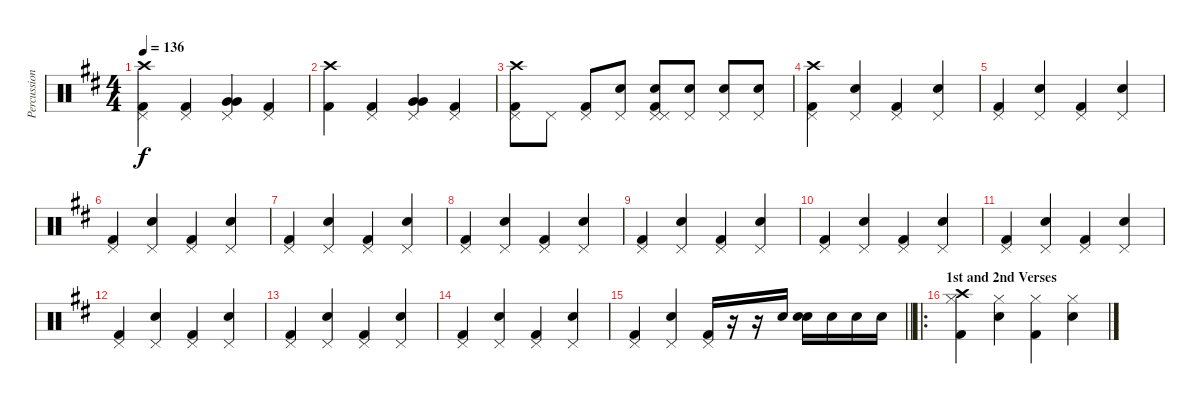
\track ("Percussions" "Percussion") {instrument percussion}
\staff {score}
\articulation defaults
\ts (4 4)
\tempo 136
\clef neutral
\ks d
("Kick (hit) 2" "Pedal Hi-Hat (hit)" "Crash high (hit)").4{dy f} ("Kick (hit) 2" "Pedal Hi-Hat (hit)").4 ("Pedal Hi-Hat (hit)" "Very Low Tom (hit)" "Very Low Tom (hit)").4 ("Kick (hit) 2" "Pedal Hi-Hat (hit)").4 |
("Kick (hit) 2" "Crash high (hit)").4 ("Kick (hit) 2" "Pedal Hi-Hat (hit)").4 ("Pedal Hi-Hat (hit)" "Very Low Tom (hit)" "Very Low Tom (hit)").4 ("Kick (hit) 2" "Pedal Hi-Hat (hit)").4 |
("Pedal Hi-Hat (hit)" "Kick (hit) 2" "Crash high (hit)").8 "Pedal Hi-Hat (hit)".8 ("Pedal Hi-Hat (hit)" "Kick (hit) 2").8 ("Pedal Hi-Hat (hit)" "Snare (hit) 2").8 ("Pedal Hi-Hat (hit)" "Snare (hit) 2" "Kick (hit) 2" "Pedal Hi-Hat (hit)").8 ("Pedal Hi-Hat (hit)" "Snare (hit) 2").8 ("Pedal Hi-Hat (hit)" "Snare (hit) 2").8 ("Pedal Hi-Hat (hit)" "Snare (hit) 2").8 |
("Pedal Hi-Hat (hit)" "Kick (hit) 2" "Crash high (hit)").4 ("Pedal Hi-Hat (hit)" "Snare (hit) 2").4 ("Pedal Hi-Hat (hit)" "Kick (hit) 2").4 ("Pedal Hi-Hat (hit)" "Snare (hit) 2").4 |
("Pedal Hi-Hat (hit)" "Kick (hit) 2").4 ("Pedal Hi-Hat (hit)" "Snare (hit) 2").4 ("Pedal Hi-Hat (hit)" "Kick (hit) 2").4 ("Pedal Hi-Hat (hit)" "Snare (hit) 2").4 |
("Pedal Hi-Hat (hit)" "Kick (hit) 2").4 ("Pedal Hi-Hat (hit)" "Snare (hit) 2").4 ("Pedal Hi-Hat (hit)" "Kick (hit) 2").4 ("Pedal Hi-Hat (hit)" "Snare (hit) 2").4 |
("Pedal Hi-Hat (hit)" "Kick (hit) 2").4 ("Pedal Hi-Hat (hit)" "Snare (hit) 2").4 ("Pedal Hi-Hat (hit)" "Kick (hit) 2").4 ("Pedal Hi-Hat (hit)" "Snare (hit) 2").4 |
("Pedal Hi-Hat (hit)" "Kick (hit) 2").4 ("Pedal Hi-Hat (hit)" "Snare (hit) 2").4 ("Pedal Hi-Hat (hit)" "Kick (hit) 2").4 ("Pedal Hi-Hat (hit)" "Snare (hit) 2").4 |
("Pedal Hi-Hat (hit)" "Kick (hit) 2").4 ("Pedal Hi-Hat (hit)" "Snare (hit) 2").4 ("Pedal Hi-Hat (hit)" "Kick (hit) 2").4 ("Pedal Hi-Hat (hit)" "Snare (hit) 2").4 |
("Pedal Hi-Hat (hit)" "Kick (hit) 2").4 ("Pedal Hi-Hat (hit)" "Snare (hit) 2").4 ("Pedal Hi-Hat (hit)" "Kick (hit) 2").4 ("Pedal Hi-Hat (hit)" "Snare (hit) 2").4 |
("Pedal Hi-Hat (hit)" "Kick (hit) 2").4 ("Pedal Hi-Hat (hit)" "Snare (hit) 2").4 ("Pedal Hi-Hat (hit)" "Kick (hit) 2").4 ("Pedal Hi-Hat (hit)" "Snare (hit) 2").4 |
("Pedal Hi-Hat (hit)" "Kick (hit) 2").4 ("Pedal Hi-Hat (hit)" "Snare (hit) 2").4 ("Pedal Hi-Hat (hit)" "Kick (hit) 2").4 ("Pedal Hi-Hat (hit)" "Snare (hit) 2").4 |
("Pedal Hi-Hat (hit)" "Kick (hit) 2").4 ("Pedal Hi-Hat (hit)" "Snare (hit) 2").4 ("Pedal Hi-Hat (hit)" "Kick (hit) 2").4 ("Pedal Hi-Hat (hit)" "Snare (hit) 2").4 |
("Pedal Hi-Hat (hit)" "Kick (hit) 2").4 ("Pedal Hi-Hat (hit)" "Snare (hit) 2").4 ("Pedal Hi-Hat (hit)" "Kick (hit) 2").4 ("Pedal Hi-Hat (hit)" "Snare (hit) 2").4 |
\barLineRight lightlight
("Pedal Hi-Hat (hit)" "Kick (hit) 2").4 ("Pedal Hi-Hat (hit)" "Snare (hit) 2").4 ("Pedal Hi-Hat (hit)" "Kick (hit) 2").16 r.16 r.16 "Snare (hit) 2".16 ("Snare (hit) 2" "Snare (hit) 2").16 "Snare (hit) 2".16 "Snare (hit) 2".16 "Snare (hit) 2".16 |
\ro
\section ("" "1st and 2nd Verses")
("Hi-Hat (closed)" "Kick (hit) 2" "Crash high (hit)").4 ("Hi-Hat (closed)" "Snare (hit) 2").4 ("Hi-Hat (closed)" "Kick (hit) 2").4 ("Hi-Hat (closed)" "Snare (hit) 2").4
